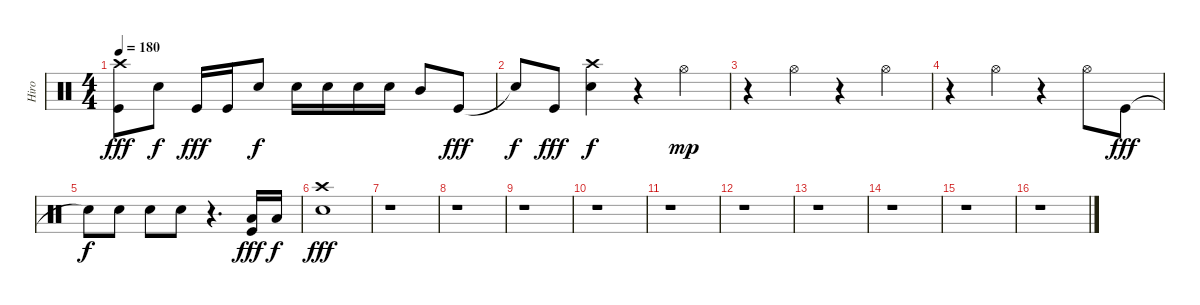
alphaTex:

\track ("Hiro" "Hiro") {instrument percussion}
\staff {score}
\articulation defaults
\ts (4 4)
\tempo 180
\clef neutral
\ks c
("Crash high (hit)" "Kick (hit)").8{dy fff} "Electric Snare (hit)".8{dy f} "Kick (hit)".16{dy fff} "Kick (hit)".16 "Electric Snare (hit)".8{dy f} "Electric Snare (hit)".16 "Electric Snare (hit)".16 "Electric Snare (hit)".16 "Electric Snare (hit)".16 "Mid Tom (hit)".8 "Kick (hit)".8{dy fff} |
"Snare (hit)"{t}.8{dy f} "Kick (hit)".8{dy fff} ("Electric Snare (hit)" "Crash high (hit)").4{dy f} r.4 "Hi-Hat (open)".4{dy mp} |
r.4 "Hi-Hat (open)".4 r.4 "Hi-Hat (open)".4 |
r.4 "Hi-Hat (open)".4 r.4 "Hi-Hat (open)".8 "Kick (hit)".8{dy fff} |
"Snare (hit)"{t}.8{dy f} "Electric Snare (hit)".8 "Electric Snare (hit)".8 "Electric Snare (hit)".8 r.4{d} ("Low Tom (hit)" "Kick (hit)").16{dy fff} "Low Floor Tom (hit)".16{dy f} |
("Crash high (hit)" "Electric Snare (hit)").1{dy fff} |
r.1 |
r.1 |
r.1 |
r.1 |
r.1 |
r.1 |
r.1 |
r.1 |
r.1 |
r.1
